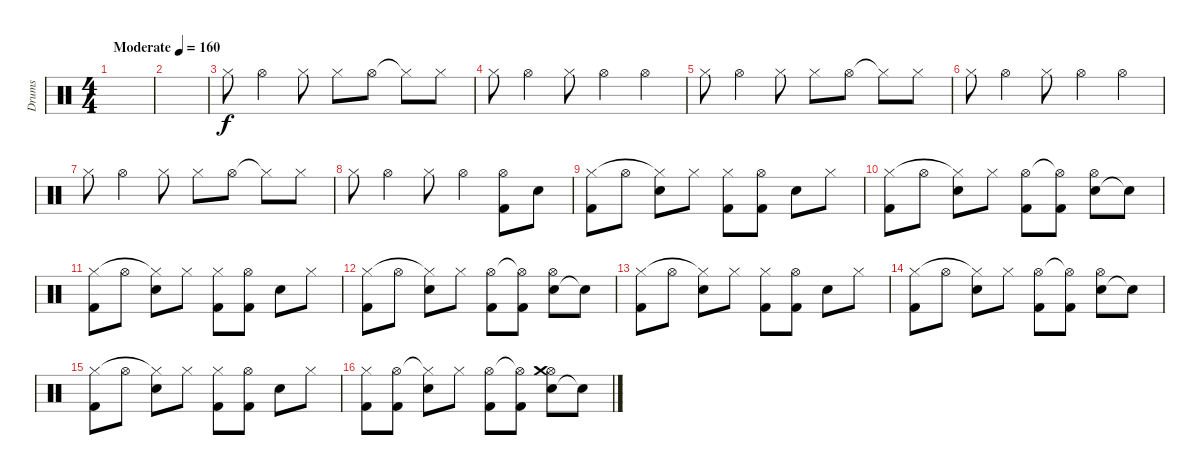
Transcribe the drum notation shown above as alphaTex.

\track ("Drums" "Drums") {instrument percussion}
\staff {score}
\articulation defaults
\ts (4 4)
\tempo (160 "Moderate")
\clef neutral
\ks c
|
|
"Hi-Hat (closed)".8 "Hi-Hat (open)".4 "Hi-Hat (closed)".8 "Hi-Hat (closed)".8 "Hi-Hat (open)".8 "Hi-Hat (closed)"{t}.8 "Hi-Hat (closed)".8 |
"Hi-Hat (closed)".8 "Hi-Hat (open)".4 "Hi-Hat (closed)".8 "Hi-Hat (open)".4 "Hi-Hat (open)".4 |
"Hi-Hat (closed)".8 "Hi-Hat (open)".4 "Hi-Hat (closed)".8 "Hi-Hat (closed)".8 "Hi-Hat (open)".8 "Hi-Hat (closed)"{t}.8 "Hi-Hat (closed)".8 |
"Hi-Hat (closed)".8 "Hi-Hat (open)".4 "Hi-Hat (closed)".8 "Hi-Hat (open)".4 "Hi-Hat (open)".4 |
"Hi-Hat (closed)".8 "Hi-Hat (open)".4 "Hi-Hat (closed)".8 "Hi-Hat (closed)".8 "Hi-Hat (open)".8 "Hi-Hat (closed)"{t}.8 "Hi-Hat (closed)".8 |
"Hi-Hat (closed)".8 "Hi-Hat (open)".4 "Hi-Hat (closed)".8 "Hi-Hat (open)".4 ("Kick (hit) 2" "Hi-Hat (open)").8 "Snare (hit) 2".8 |
("Kick (hit) 2" "Hi-Hat (closed)").8 "Hi-Hat (open)".8 ("Snare (hit) 2" "Hi-Hat (closed)"{t}).8 "Hi-Hat (closed)".8 ("Kick (hit) 2" "Hi-Hat (closed)").8 ("Kick (hit) 2" "Hi-Hat (open)").8 "Snare (hit) 2".8 "Hi-Hat (closed)".8 |
("Kick (hit) 2" "Hi-Hat (closed)").8 "Hi-Hat (open)".8 ("Snare (hit) 2" "Hi-Hat (closed)"{t}).8 "Hi-Hat (closed)".8 ("Kick (hit) 2" "Hi-Hat (open)").8 ("Kick (hit) 2" "Hi-Hat (open)"{t}).8 ("Snare (hit) 2" "Hi-Hat (open)").8 "Snare (hit)"{t}.8 |
("Kick (hit) 2" "Hi-Hat (closed)").8 "Hi-Hat (open)".8 ("Snare (hit) 2" "Hi-Hat (closed)"{t}).8 "Hi-Hat (closed)".8 ("Kick (hit) 2" "Hi-Hat (closed)").8 ("Kick (hit) 2" "Hi-Hat (open)").8 "Snare (hit) 2".8 "Hi-Hat (closed)".8 |
("Kick (hit) 2" "Hi-Hat (closed)").8 "Hi-Hat (open)".8 ("Snare (hit) 2" "Hi-Hat (closed)"{t}).8 "Hi-Hat (closed)".8 ("Kick (hit) 2" "Hi-Hat (open)").8 ("Kick (hit) 2" "Hi-Hat (open)"{t}).8 ("Snare (hit) 2" "Hi-Hat (open)").8 "Snare (hit)"{t}.8 |
("Kick (hit) 2" "Hi-Hat (closed)").8 "Hi-Hat (open)".8 ("Snare (hit) 2" "Hi-Hat (closed)"{t}).8 "Hi-Hat (closed)".8 ("Kick (hit) 2" "Hi-Hat (closed)").8 ("Kick (hit) 2" "Hi-Hat (open)").8 "Snare (hit) 2".8 "Hi-Hat (closed)".8 |
("Kick (hit) 2" "Hi-Hat (closed)").8 "Hi-Hat (open)".8 ("Snare (hit) 2" "Hi-Hat (closed)"{t}).8 "Hi-Hat (closed)".8 ("Kick (hit) 2" "Hi-Hat (open)").8 ("Kick (hit) 2" "Hi-Hat (open)"{t}).8 ("Snare (hit) 2" "Hi-Hat (open)").8 "Snare (hit)"{t}.8 |
("Kick (hit) 2" "Hi-Hat (closed)").8 "Hi-Hat (open)".8 ("Snare (hit) 2" "Hi-Hat (closed)"{t}).8 "Hi-Hat (closed)".8 ("Kick (hit) 2" "Hi-Hat (closed)").8 ("Kick (hit) 2" "Hi-Hat (open)").8 "Snare (hit) 2".8 "Hi-Hat (closed)".8 |
("Kick (hit) 2" "Hi-Hat (closed)").8 ("Kick (hit) 2" "Hi-Hat (open)").8 ("Snare (hit) 2" "Hi-Hat (closed)"{t}).8 "Hi-Hat (closed)".8 ("Kick (hit) 2" "Hi-Hat (open)").8 ("Kick (hit) 2" "Hi-Hat (open)"{t}).8 ("Snare (hit) 2" "Hi-Hat (open)" "Crash medium (hit)").8 "Snare (hit)"{t}.8
